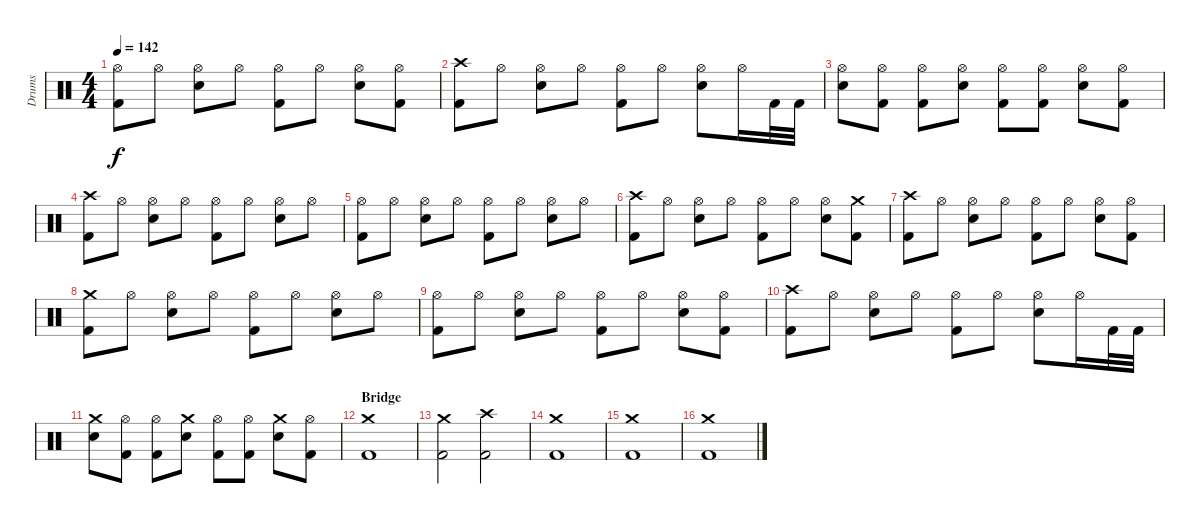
\track ("Drums" "Drums") {instrument percussion}
\staff {score}
\articulation defaults
\ts (4 4)
\tempo 142
\clef neutral
\ks c
("Hi-Hat (open)" "Kick (hit) 2").8{dy f} "Hi-Hat (open)".8 ("Hi-Hat (open)" "Snare (hit) 2").8 "Hi-Hat (open)".8 ("Hi-Hat (open)" "Kick (hit) 2").8 "Hi-Hat (open)".8 ("Hi-Hat (open)" "Snare (hit) 2").8 ("Hi-Hat (open)" "Kick (hit) 2").8 |
("Crash high (hit)" "Kick (hit) 2").8 "Hi-Hat (open)".8 ("Hi-Hat (open)" "Snare (hit) 2").8 "Hi-Hat (open)".8 ("Hi-Hat (open)" "Kick (hit) 2").8 "Hi-Hat (open)".8 ("Hi-Hat (open)" "Snare (hit) 2").8 "Hi-Hat (open)".16 "Kick (hit) 2".32 "Kick (hit) 2".32 |
("Hi-Hat (open)" "Snare (hit) 2").8 ("Hi-Hat (open)" "Kick (hit) 2").8 ("Hi-Hat (open)" "Kick (hit) 2").8 ("Hi-Hat (open)" "Snare (hit) 2").8 ("Hi-Hat (open)" "Kick (hit) 2").8 ("Hi-Hat (open)" "Kick (hit) 2").8 ("Hi-Hat (open)" "Snare (hit) 2").8 ("Hi-Hat (open)" "Kick (hit) 2").8 |
("Crash high (hit)" "Kick (hit) 2").8 "Hi-Hat (open)".8 ("Hi-Hat (open)" "Snare (hit) 2").8 "Hi-Hat (open)".8 ("Hi-Hat (open)" "Kick (hit) 2").8 "Hi-Hat (open)".8 ("Hi-Hat (open)" "Snare (hit) 2").8 "Hi-Hat (open)".8 |
("Hi-Hat (open)" "Kick (hit) 2").8 "Hi-Hat (open)".8 ("Hi-Hat (open)" "Snare (hit) 2").8 "Hi-Hat (open)".8 ("Hi-Hat (open)" "Kick (hit) 2").8 "Hi-Hat (open)".8 ("Hi-Hat (open)" "Snare (hit) 2").8 "Hi-Hat (open)".8 |
("Crash high (hit)" "Kick (hit) 2").8 "Hi-Hat (open)".8 ("Hi-Hat (open)" "Snare (hit) 2").8 "Hi-Hat (open)".8 ("Hi-Hat (open)" "Kick (hit) 2").8 "Hi-Hat (open)".8 ("Hi-Hat (open)" "Snare (hit) 2").8 ("Crash medium (hit)" "Kick (hit) 2").8 |
("Crash high (hit)" "Kick (hit) 2").8 "Hi-Hat (open)".8 ("Hi-Hat (open)" "Snare (hit) 2").8 "Hi-Hat (open)".8 ("Hi-Hat (open)" "Kick (hit) 2").8 "Hi-Hat (open)".8 ("Hi-Hat (open)" "Snare (hit) 2").8 ("Hi-Hat (open)" "Kick (hit) 2").8 |
("Crash medium (hit)" "Kick (hit) 2").8 "Hi-Hat (open)".8 ("Hi-Hat (open)" "Snare (hit) 2").8 "Hi-Hat (open)".8 ("Hi-Hat (open)" "Kick (hit) 2").8 "Hi-Hat (open)".8 ("Hi-Hat (open)" "Snare (hit) 2").8 "Hi-Hat (open)".8 |
("Hi-Hat (open)" "Kick (hit) 2").8 "Hi-Hat (open)".8 ("Hi-Hat (open)" "Snare (hit) 2").8 "Hi-Hat (open)".8 ("Hi-Hat (open)" "Kick (hit) 2").8 "Hi-Hat (open)".8 ("Hi-Hat (open)" "Snare (hit) 2").8 ("Hi-Hat (open)" "Kick (hit) 2").8 |
("Crash high (hit)" "Kick (hit) 2").8 "Hi-Hat (open)".8 ("Hi-Hat (open)" "Snare (hit) 2").8 "Hi-Hat (open)".8 ("Hi-Hat (open)" "Kick (hit) 2").8 "Hi-Hat (open)".8 ("Hi-Hat (open)" "Snare (hit) 2").8 "Hi-Hat (open)".16 "Kick (hit) 2".32 "Kick (hit) 2".32 |
("Crash medium (hit)" "Snare (hit) 2").8 ("Hi-Hat (open)" "Kick (hit) 2").8 ("Hi-Hat (open)" "Kick (hit) 2").8 ("Crash medium (hit)" "Snare (hit) 2").8 ("Hi-Hat (open)" "Kick (hit) 2").8 ("Hi-Hat (open)" "Kick (hit) 2").8 ("Crash medium (hit)" "Snare (hit) 2").8 ("Hi-Hat (open)" "Kick (hit) 2").8 |
\section ("" "Bridge")
("Crash medium (hit)" "Kick (hit) 2").1 |
("Crash medium (hit)" "Kick (hit) 2").2 ("Crash high (hit)" "Kick (hit) 2").2 |
("Crash medium (hit)" "Kick (hit) 2").1 |
("Crash medium (hit)" "Kick (hit) 2").1 |
("Crash medium (hit)" "Kick (hit) 2").1
